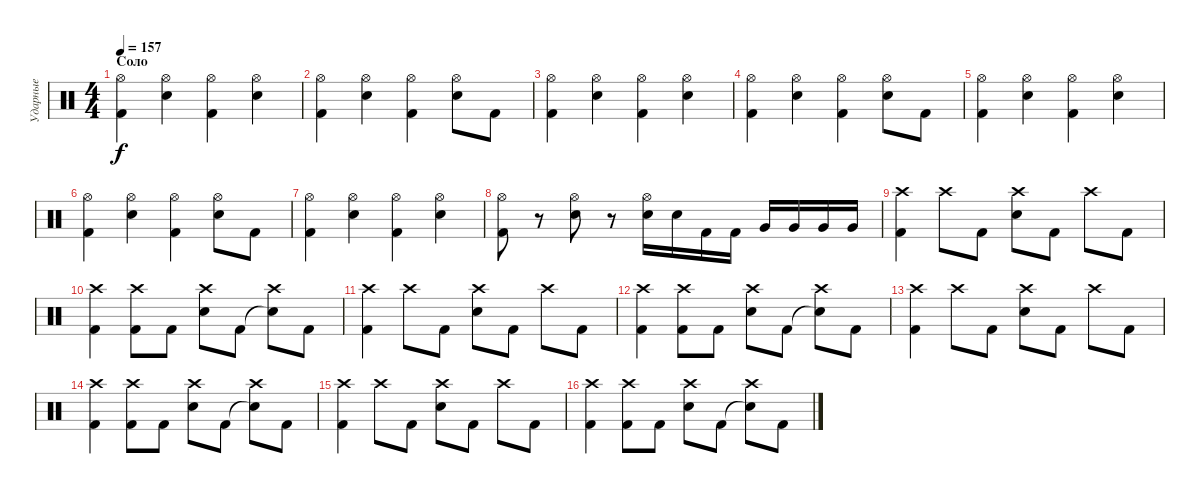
\track ("Ударные" "Ударные") {instrument percussion}
\staff {score}
\articulation defaults
\ts (4 4)
\section ("" "Соло")
\tempo 157
\clef neutral
\ks c
("Kick (hit) 2" "Hi-Hat (open)").4{dy f} ("Electric Snare (hit)" "Hi-Hat (open)").4 ("Kick (hit) 2" "Hi-Hat (open)").4 ("Electric Snare (hit)" "Hi-Hat (open)").4 |
("Kick (hit) 2" "Hi-Hat (open)").4 ("Electric Snare (hit)" "Hi-Hat (open)").4 ("Kick (hit) 2" "Hi-Hat (open)").4 ("Electric Snare (hit)" "Hi-Hat (open)").8 "Kick (hit) 2".8 |
("Kick (hit) 2" "Hi-Hat (open)").4 ("Electric Snare (hit)" "Hi-Hat (open)").4 ("Kick (hit) 2" "Hi-Hat (open)").4 ("Electric Snare (hit)" "Hi-Hat (open)").4 |
("Kick (hit) 2" "Hi-Hat (open)").4 ("Electric Snare (hit)" "Hi-Hat (open)").4 ("Kick (hit) 2" "Hi-Hat (open)").4 ("Electric Snare (hit)" "Hi-Hat (open)").8 "Kick (hit) 2".8 |
("Kick (hit) 2" "Hi-Hat (open)").4 ("Electric Snare (hit)" "Hi-Hat (open)").4 ("Kick (hit) 2" "Hi-Hat (open)").4 ("Electric Snare (hit)" "Hi-Hat (open)").4 |
("Kick (hit) 2" "Hi-Hat (open)").4 ("Electric Snare (hit)" "Hi-Hat (open)").4 ("Kick (hit) 2" "Hi-Hat (open)").4 ("Electric Snare (hit)" "Hi-Hat (open)").8 "Kick (hit) 2".8 |
("Kick (hit) 2" "Hi-Hat (open)").4 ("Electric Snare (hit)" "Hi-Hat (open)").4 ("Kick (hit) 2" "Hi-Hat (open)").4 ("Electric Snare (hit)" "Hi-Hat (open)").4 |
("Kick (hit) 2" "Hi-Hat (open)").8 r.8 ("Electric Snare (hit)" "Hi-Hat (open)").8 r.8 ("Electric Snare (hit)" "Hi-Hat (open)").16 "Electric Snare (hit)".16 "Kick (hit) 2".16 "Kick (hit) 2".16 "Very Low Tom (hit)".16 "Very Low Tom (hit)".16 "Very Low Tom (hit)".16 "Very Low Tom (hit)".16 |
("Kick (hit) 2" "Crash high (hit)").4 "Crash high (hit)".8 "Kick (hit) 2".8 ("Electric Snare (hit)" "Crash high (hit)").8 "Kick (hit) 2".8 "Crash high (hit)".8 "Kick (hit) 2".8 |
("Kick (hit) 2" "Crash high (hit)").4 ("Kick (hit) 2" "Crash high (hit)").8 "Kick (hit) 2".8 ("Electric Snare (hit)" "Crash high (hit)").8 "Kick (hit) 2".8 ("Snare (hit)"{t} "Crash high (hit)").8 "Kick (hit) 2".8 |
("Kick (hit) 2" "Crash high (hit)").4 "Crash high (hit)".8 "Kick (hit) 2".8 ("Electric Snare (hit)" "Crash high (hit)").8 "Kick (hit) 2".8 "Crash high (hit)".8 "Kick (hit) 2".8 |
("Kick (hit) 2" "Crash high (hit)").4 ("Kick (hit) 2" "Crash high (hit)").8 "Kick (hit) 2".8 ("Electric Snare (hit)" "Crash high (hit)").8 "Kick (hit) 2".8 ("Snare (hit)"{t} "Crash high (hit)").8 "Kick (hit) 2".8 |
("Kick (hit) 2" "Crash high (hit)").4 "Crash high (hit)".8 "Kick (hit) 2".8 ("Electric Snare (hit)" "Crash high (hit)").8 "Kick (hit) 2".8 "Crash high (hit)".8 "Kick (hit) 2".8 |
("Kick (hit) 2" "Crash high (hit)").4 ("Kick (hit) 2" "Crash high (hit)").8 "Kick (hit) 2".8 ("Electric Snare (hit)" "Crash high (hit)").8 "Kick (hit) 2".8 ("Snare (hit)"{t} "Crash high (hit)").8 "Kick (hit) 2".8 |
("Kick (hit) 2" "Crash high (hit)").4 "Crash high (hit)".8 "Kick (hit) 2".8 ("Electric Snare (hit)" "Crash high (hit)").8 "Kick (hit) 2".8 "Crash high (hit)".8 "Kick (hit) 2".8 |
("Kick (hit) 2" "Crash high (hit)").4 ("Kick (hit) 2" "Crash high (hit)").8 "Kick (hit) 2".8 ("Electric Snare (hit)" "Crash high (hit)").8 "Kick (hit) 2".8 ("Snare (hit)"{t} "Crash high (hit)").8 "Kick (hit) 2".8
